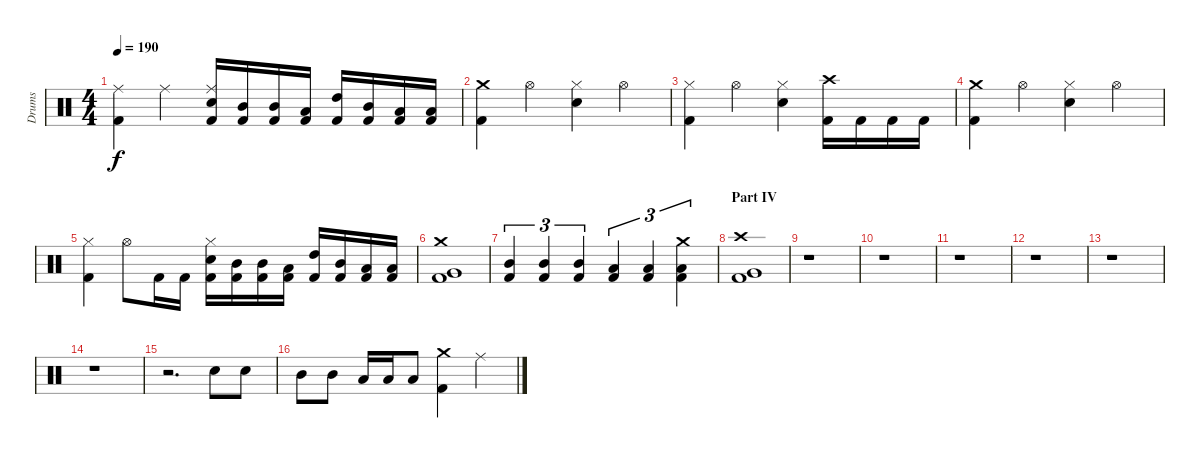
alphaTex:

\track ("Drums" "Drums") {instrument percussion}
\staff {score}
\articulation defaults
\ts (4 4)
\tempo 190
\clef neutral
\ks c
("Kick (hit) 2" "Ride (middle)").4{dy f} "Ride (middle)".4 ("Kick (hit) 2" "Electric Snare (hit)" "Ride (middle)").16 ("Kick (hit) 2" "Mid Tom (hit)").16 ("Kick (hit) 2" "Mid Tom (hit)").16 ("Kick (hit) 2" "Low Tom (hit)").16 ("Kick (hit) 2" "High Tom (hit)").16 ("Kick (hit) 2" "Mid Tom (hit)").16 ("Kick (hit) 2" "Low Tom (hit)").16 ("Kick (hit) 2" "Low Tom (hit)").16 |
("Kick (hit) 2" "Crash medium (hit)").4 "Hi-Hat (open)".4 ("Electric Snare (hit)" "Hi-Hat (closed)").4 "Hi-Hat (open)".4 |
("Kick (hit) 2" "Hi-Hat (closed)").4 "Hi-Hat (open)".4 ("Electric Snare (hit)" "Hi-Hat (closed)").4 ("Kick (hit) 2" "Crash high (hit)").16 "Kick (hit) 2".16 "Kick (hit) 2".16 "Kick (hit) 2".16 |
("Kick (hit) 2" "Crash medium (hit)").4 "Hi-Hat (open)".4 ("Electric Snare (hit)" "Hi-Hat (closed)").4 "Hi-Hat (open)".4 |
("Kick (hit) 2" "Hi-Hat (closed)").4 "Hi-Hat (open)".8 "Kick (hit) 2".16 "Kick (hit) 2".16 ("Kick (hit) 2" "Electric Snare (hit)" "Hi-Hat (closed)").16 ("Kick (hit) 2" "Mid Tom (hit)").16 ("Kick (hit) 2" "Mid Tom (hit)").16 ("Kick (hit) 2" "Low Tom (hit)").16 ("Kick (hit) 2" "High Tom (hit)").16 ("Kick (hit) 2" "Mid Tom (hit)").16 ("Kick (hit) 2" "Low Tom (hit)").16 ("Kick (hit) 2" "Low Tom (hit)").16 |
("Kick (hit) 2" "Very Low Tom (hit)" "Crash medium (hit)").1 |
("Kick (hit) 2" "Mid Tom (hit)").4{tu (3 2)} ("Kick (hit) 2" "Mid Tom (hit)").4{tu (3 2)} ("Kick (hit) 2" "Mid Tom (hit)").4{tu (3 2)} ("Kick (hit) 2" "Low Tom (hit)").4{tu (3 2)} ("Kick (hit) 2" "Low Tom (hit)").4{tu (3 2)} ("Kick (hit) 2" "Low Tom (hit)" "Crash medium (hit)").4{tu (3 2)} |
\section ("" "Part IV")
("Kick (hit) 2" "Very Low Tom (hit)" "Crash high (hit)").1 |
r.1 |
r.1 |
r.1 |
r.1 |
r.1 |
r.1 |
r.2{d} "Electric Snare (hit)".8 "Electric Snare (hit)".8 |
"Mid Tom (hit)".8 "Mid Tom (hit)".8 "Low Tom (hit)".16 "Low Tom (hit)".16 "Low Tom (hit)".8 ("Kick (hit) 2" "Crash medium (hit)").4 "Ride (middle)".4
